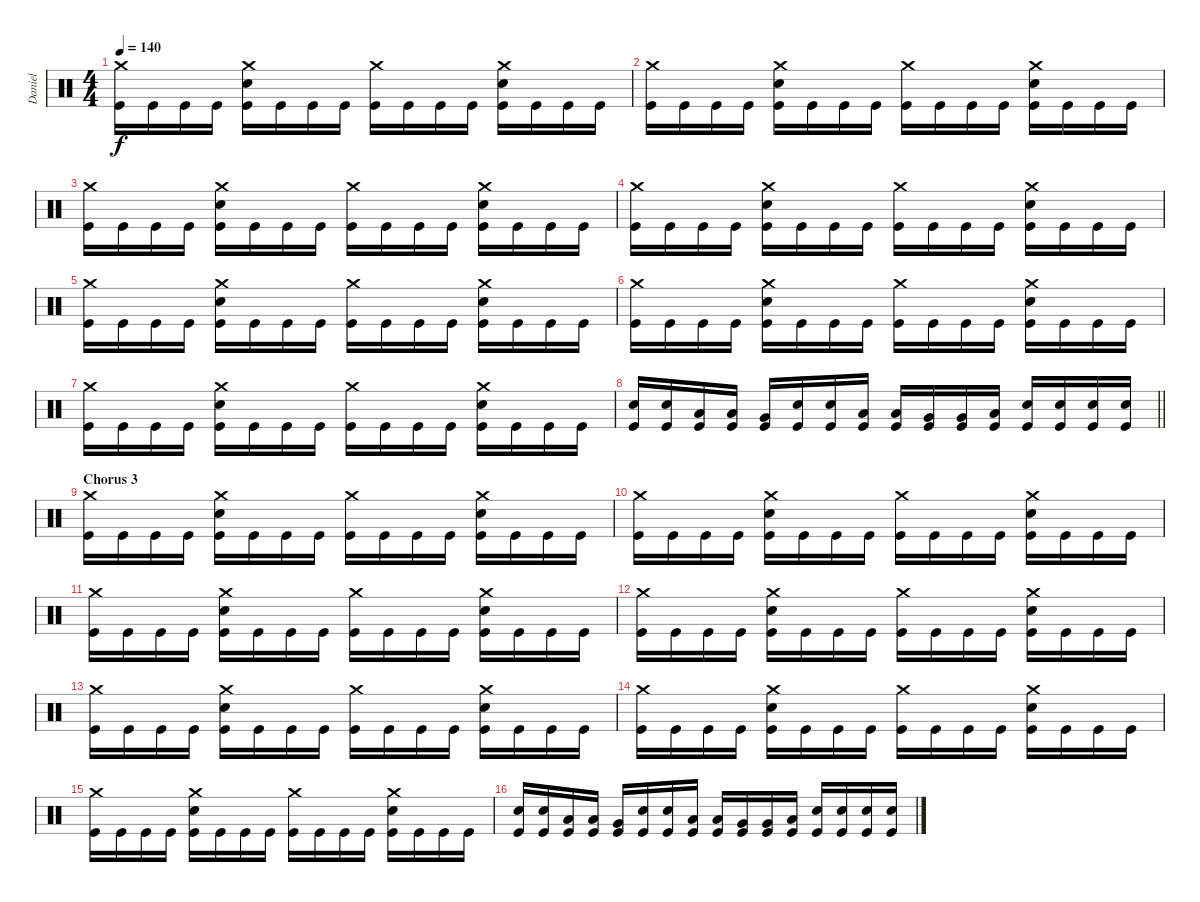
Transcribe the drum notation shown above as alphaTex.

\track ("Daniel" "Daniel") {instrument percussion}
\staff {score}
\articulation defaults
\ts (4 4)
\tempo 140
\clef neutral
\ks c
("Crash medium (hit)" "Kick (hit)").16{dy f volume 16} "Kick (hit)".16 "Kick (hit)".16 "Kick (hit)".16 ("Crash medium (hit)" "Electric Snare (hit)" "Kick (hit)").16 "Kick (hit)".16 "Kick (hit)".16 "Kick (hit)".16 ("Crash medium (hit)" "Kick (hit)").16 "Kick (hit)".16 "Kick (hit)".16 "Kick (hit)".16 ("Crash medium (hit)" "Electric Snare (hit)" "Kick (hit)").16 "Kick (hit)".16 "Kick (hit)".16 "Kick (hit)".16 |
("Crash medium (hit)" "Kick (hit)").16 "Kick (hit)".16 "Kick (hit)".16 "Kick (hit)".16 ("Crash medium (hit)" "Electric Snare (hit)" "Kick (hit)").16 "Kick (hit)".16 "Kick (hit)".16 "Kick (hit)".16 ("Crash medium (hit)" "Kick (hit)").16 "Kick (hit)".16 "Kick (hit)".16 "Kick (hit)".16 ("Crash medium (hit)" "Electric Snare (hit)" "Kick (hit)").16 "Kick (hit)".16 "Kick (hit)".16 "Kick (hit)".16 |
("Crash medium (hit)" "Kick (hit)").16 "Kick (hit)".16 "Kick (hit)".16 "Kick (hit)".16 ("Crash medium (hit)" "Electric Snare (hit)" "Kick (hit)").16 "Kick (hit)".16 "Kick (hit)".16 "Kick (hit)".16 ("Crash medium (hit)" "Kick (hit)").16 "Kick (hit)".16 "Kick (hit)".16 "Kick (hit)".16 ("Crash medium (hit)" "Electric Snare (hit)" "Kick (hit)").16 "Kick (hit)".16 "Kick (hit)".16 "Kick (hit)".16 |
("Crash medium (hit)" "Kick (hit)").16 "Kick (hit)".16 "Kick (hit)".16 "Kick (hit)".16 ("Crash medium (hit)" "Electric Snare (hit)" "Kick (hit)").16 "Kick (hit)".16 "Kick (hit)".16 "Kick (hit)".16 ("Crash medium (hit)" "Kick (hit)").16 "Kick (hit)".16 "Kick (hit)".16 "Kick (hit)".16 ("Crash medium (hit)" "Electric Snare (hit)" "Kick (hit)").16 "Kick (hit)".16 "Kick (hit)".16 "Kick (hit)".16 |
("Crash medium (hit)" "Kick (hit)").16 "Kick (hit)".16 "Kick (hit)".16 "Kick (hit)".16 ("Crash medium (hit)" "Electric Snare (hit)" "Kick (hit)").16 "Kick (hit)".16 "Kick (hit)".16 "Kick (hit)".16 ("Crash medium (hit)" "Kick (hit)").16 "Kick (hit)".16 "Kick (hit)".16 "Kick (hit)".16 ("Crash medium (hit)" "Electric Snare (hit)" "Kick (hit)").16 "Kick (hit)".16 "Kick (hit)".16 "Kick (hit)".16 |
("Crash medium (hit)" "Kick (hit)").16 "Kick (hit)".16 "Kick (hit)".16 "Kick (hit)".16 ("Crash medium (hit)" "Electric Snare (hit)" "Kick (hit)").16 "Kick (hit)".16 "Kick (hit)".16 "Kick (hit)".16 ("Crash medium (hit)" "Kick (hit)").16 "Kick (hit)".16 "Kick (hit)".16 "Kick (hit)".16 ("Crash medium (hit)" "Electric Snare (hit)" "Kick (hit)").16 "Kick (hit)".16 "Kick (hit)".16 "Kick (hit)".16 |
("Crash medium (hit)" "Kick (hit)").16 "Kick (hit)".16 "Kick (hit)".16 "Kick (hit)".16 ("Crash medium (hit)" "Electric Snare (hit)" "Kick (hit)").16 "Kick (hit)".16 "Kick (hit)".16 "Kick (hit)".16 ("Crash medium (hit)" "Kick (hit)").16 "Kick (hit)".16 "Kick (hit)".16 "Kick (hit)".16 ("Crash medium (hit)" "Electric Snare (hit)" "Kick (hit)").16 "Kick (hit)".16 "Kick (hit)".16 "Kick (hit)".16 |
\barLineRight lightlight
("Electric Snare (hit)" "Kick (hit)").16 ("Electric Snare (hit)" "Kick (hit)").16 ("Low Tom (hit)" "Kick (hit)").16 ("Low Tom (hit)" "Kick (hit)").16 ("Very Low Tom (hit)" "Kick (hit)").16 ("Electric Snare (hit)" "Kick (hit)").16 ("Electric Snare (hit)" "Kick (hit)").16 ("Low Tom (hit)" "Kick (hit)").16 ("Low Tom (hit)" "Kick (hit)").16 ("Very Low Tom (hit)" "Kick (hit)").16 ("Very Low Tom (hit)" "Kick (hit)").16 ("Low Floor Tom (hit)" "Kick (hit)").16 ("Electric Snare (hit)" "Kick (hit)").16 ("Electric Snare (hit)" "Kick (hit)").16 ("Electric Snare (hit)" "Kick (hit)").16 ("Electric Snare (hit)" "Kick (hit)").16 |
\section ("" "Chorus 3")
("Crash medium (hit)" "Kick (hit)").16 "Kick (hit)".16 "Kick (hit)".16 "Kick (hit)".16 ("Crash medium (hit)" "Electric Snare (hit)" "Kick (hit)").16 "Kick (hit)".16 "Kick (hit)".16 "Kick (hit)".16 ("Crash medium (hit)" "Kick (hit)").16 "Kick (hit)".16 "Kick (hit)".16 "Kick (hit)".16 ("Crash medium (hit)" "Electric Snare (hit)" "Kick (hit)").16 "Kick (hit)".16 "Kick (hit)".16 "Kick (hit)".16 |
("Crash medium (hit)" "Kick (hit)").16 "Kick (hit)".16 "Kick (hit)".16 "Kick (hit)".16 ("Crash medium (hit)" "Electric Snare (hit)" "Kick (hit)").16 "Kick (hit)".16 "Kick (hit)".16 "Kick (hit)".16 ("Crash medium (hit)" "Kick (hit)").16 "Kick (hit)".16 "Kick (hit)".16 "Kick (hit)".16 ("Crash medium (hit)" "Electric Snare (hit)" "Kick (hit)").16 "Kick (hit)".16 "Kick (hit)".16 "Kick (hit)".16 |
("Crash medium (hit)" "Kick (hit)").16 "Kick (hit)".16 "Kick (hit)".16 "Kick (hit)".16 ("Crash medium (hit)" "Electric Snare (hit)" "Kick (hit)").16 "Kick (hit)".16 "Kick (hit)".16 "Kick (hit)".16 ("Crash medium (hit)" "Kick (hit)").16 "Kick (hit)".16 "Kick (hit)".16 "Kick (hit)".16 ("Crash medium (hit)" "Electric Snare (hit)" "Kick (hit)").16 "Kick (hit)".16 "Kick (hit)".16 "Kick (hit)".16 |
("Crash medium (hit)" "Kick (hit)").16 "Kick (hit)".16 "Kick (hit)".16 "Kick (hit)".16 ("Crash medium (hit)" "Electric Snare (hit)" "Kick (hit)").16 "Kick (hit)".16 "Kick (hit)".16 "Kick (hit)".16 ("Crash medium (hit)" "Kick (hit)").16 "Kick (hit)".16 "Kick (hit)".16 "Kick (hit)".16 ("Crash medium (hit)" "Electric Snare (hit)" "Kick (hit)").16 "Kick (hit)".16 "Kick (hit)".16 "Kick (hit)".16 |
("Crash medium (hit)" "Kick (hit)").16 "Kick (hit)".16 "Kick (hit)".16 "Kick (hit)".16 ("Crash medium (hit)" "Electric Snare (hit)" "Kick (hit)").16 "Kick (hit)".16 "Kick (hit)".16 "Kick (hit)".16 ("Crash medium (hit)" "Kick (hit)").16 "Kick (hit)".16 "Kick (hit)".16 "Kick (hit)".16 ("Crash medium (hit)" "Electric Snare (hit)" "Kick (hit)").16 "Kick (hit)".16 "Kick (hit)".16 "Kick (hit)".16 |
("Crash medium (hit)" "Kick (hit)").16 "Kick (hit)".16 "Kick (hit)".16 "Kick (hit)".16 ("Crash medium (hit)" "Electric Snare (hit)" "Kick (hit)").16 "Kick (hit)".16 "Kick (hit)".16 "Kick (hit)".16 ("Crash medium (hit)" "Kick (hit)").16 "Kick (hit)".16 "Kick (hit)".16 "Kick (hit)".16 ("Crash medium (hit)" "Electric Snare (hit)" "Kick (hit)").16 "Kick (hit)".16 "Kick (hit)".16 "Kick (hit)".16 |
("Crash medium (hit)" "Kick (hit)").16 "Kick (hit)".16 "Kick (hit)".16 "Kick (hit)".16 ("Crash medium (hit)" "Electric Snare (hit)" "Kick (hit)").16 "Kick (hit)".16 "Kick (hit)".16 "Kick (hit)".16 ("Crash medium (hit)" "Kick (hit)").16 "Kick (hit)".16 "Kick (hit)".16 "Kick (hit)".16 ("Crash medium (hit)" "Electric Snare (hit)" "Kick (hit)").16 "Kick (hit)".16 "Kick (hit)".16 "Kick (hit)".16 |
("Electric Snare (hit)" "Kick (hit)").16 ("Electric Snare (hit)" "Kick (hit)").16 ("Low Tom (hit)" "Kick (hit)").16 ("Low Tom (hit)" "Kick (hit)").16 ("Very Low Tom (hit)" "Kick (hit)").16 ("Electric Snare (hit)" "Kick (hit)").16 ("Electric Snare (hit)" "Kick (hit)").16 ("Low Tom (hit)" "Kick (hit)").16 ("Low Tom (hit)" "Kick (hit)").16 ("Very Low Tom (hit)" "Kick (hit)").16 ("Very Low Tom (hit)" "Kick (hit)").16 ("Low Floor Tom (hit)" "Kick (hit)").16 ("Electric Snare (hit)" "Kick (hit)").16 ("Electric Snare (hit)" "Kick (hit)").16 ("Electric Snare (hit)" "Kick (hit)").16 ("Electric Snare (hit)" "Kick (hit)").16
